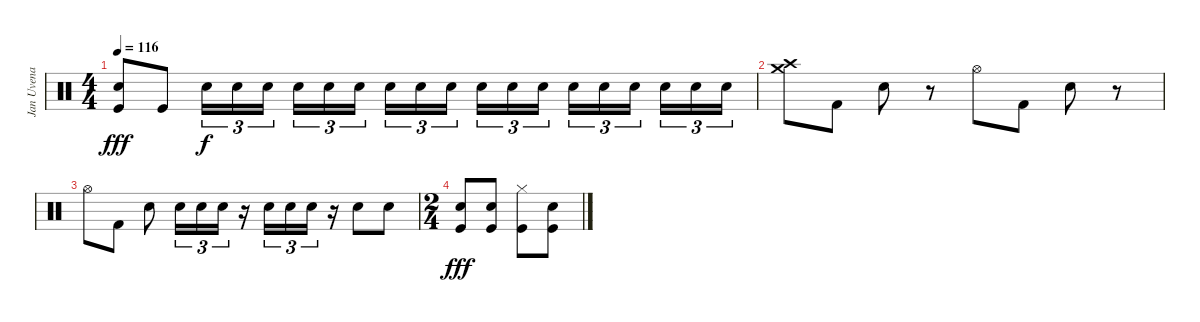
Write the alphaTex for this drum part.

\track ("Jan Uvena" "Jan Uvena") {instrument percussion}
\staff {score}
\articulation defaults
\ts (4 4)
\tempo 116
\clef neutral
\ks c
("Snare (hit) 2" "Kick (hit)").8{dy fff} "Kick (hit)".8 "Snare (hit) 2".16{tu (3 2) dy f} "Snare (hit) 2".16{tu (3 2)} "Snare (hit) 2".16{tu (3 2)} "Snare (hit) 2".16{tu (3 2)} "Snare (hit) 2".16{tu (3 2)} "Snare (hit) 2".16{tu (3 2)} "Snare (hit) 2".16{tu (3 2)} "Snare (hit) 2".16{tu (3 2)} "Snare (hit) 2".16{tu (3 2)} "Snare (hit) 2".16{tu (3 2)} "Snare (hit) 2".16{tu (3 2)} "Snare (hit) 2".16{tu (3 2)} "Snare (hit) 2".16{tu (3 2)} "Snare (hit) 2".16{tu (3 2)} "Snare (hit) 2".16{tu (3 2)} "Snare (hit) 2".16{tu (3 2)} "Snare (hit) 2".16{tu (3 2)} "Snare (hit) 2".16{tu (3 2)} |
("Crash medium (hit)" "Crash high (hit)").8 "Kick (hit) 2".8 "Snare (hit) 2".8 r.8 "Hi-Hat (open)".8 "Kick (hit) 2".8 "Snare (hit) 2".8 r.8 |
"Hi-Hat (open)".8 "Kick (hit) 2".8 "Snare (hit) 2".8 "Snare (hit) 2".16{tu (3 2)} "Snare (hit) 2".16{tu (3 2)} "Snare (hit) 2".16{tu (3 2)} r.16 "Snare (hit) 2".16{tu (3 2)} "Snare (hit) 2".16{tu (3 2)} "Snare (hit) 2".16{tu (3 2)} r.16 "Snare (hit) 2".8 "Snare (hit) 2".8 |
\ts (2 4)
("Snare (hit) 2" "Kick (hit)").8{dy fff} ("Snare (hit) 2" "Kick (hit)").8 ("Hi-Hat (closed)" "Kick (hit)").8 ("Snare (hit) 2" "Kick (hit)").8
